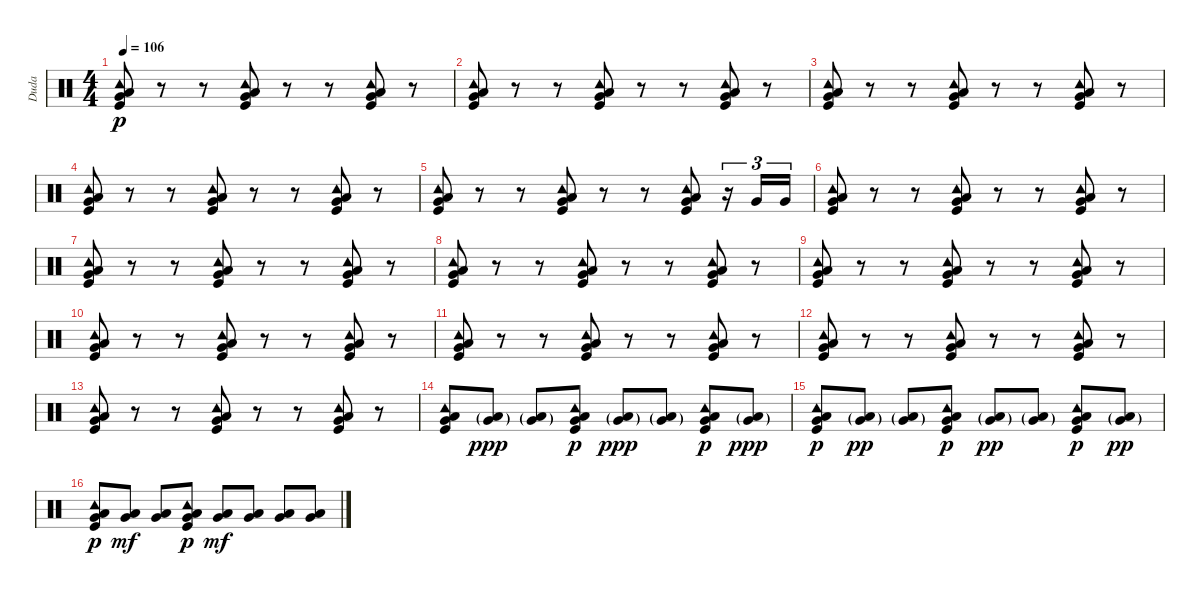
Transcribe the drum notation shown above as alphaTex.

\track ("Duda" "Duda") {instrument percussion}
\staff {score}
\articulation defaults
\ts (4 4)
\tempo 106
\clef neutral
\ks c
("Tambourine (hit)" "Low Floor Tom (hit)" "Very Low Tom (hit)" "Kick (hit)").8{dy p} r.8 r.8 ("Tambourine (hit)" "Low Floor Tom (hit)" "Very Low Tom (hit)" "Kick (hit)").8 r.8 r.8 ("Tambourine (hit)" "Low Floor Tom (hit)" "Very Low Tom (hit)" "Kick (hit)").8 r.8 |
("Tambourine (hit)" "Low Floor Tom (hit)" "Very Low Tom (hit)" "Kick (hit)").8 r.8 r.8 ("Tambourine (hit)" "Low Floor Tom (hit)" "Very Low Tom (hit)" "Kick (hit)").8 r.8 r.8 ("Tambourine (hit)" "Low Floor Tom (hit)" "Very Low Tom (hit)" "Kick (hit)").8 r.8 |
("Tambourine (hit)" "Low Floor Tom (hit)" "Very Low Tom (hit)" "Kick (hit)").8 r.8 r.8 ("Tambourine (hit)" "Low Floor Tom (hit)" "Very Low Tom (hit)" "Kick (hit)").8 r.8 r.8 ("Tambourine (hit)" "Low Floor Tom (hit)" "Very Low Tom (hit)" "Kick (hit)").8 r.8 |
("Tambourine (hit)" "Low Floor Tom (hit)" "Very Low Tom (hit)" "Kick (hit)").8 r.8 r.8 ("Tambourine (hit)" "Low Floor Tom (hit)" "Very Low Tom (hit)" "Kick (hit)").8 r.8 r.8 ("Tambourine (hit)" "Low Floor Tom (hit)" "Very Low Tom (hit)" "Kick (hit)").8 r.8 |
("Tambourine (hit)" "Low Floor Tom (hit)" "Very Low Tom (hit)" "Kick (hit)").8 r.8 r.8 ("Tambourine (hit)" "Low Floor Tom (hit)" "Very Low Tom (hit)" "Kick (hit)").8 r.8 r.8 ("Tambourine (hit)" "Low Floor Tom (hit)" "Very Low Tom (hit)" "Kick (hit)").8 r.16{tu (3 2)} "Very Low Tom (hit)".16{tu (3 2)} "Very Low Tom (hit)".16{tu (3 2)} |
("Tambourine (hit)" "Low Floor Tom (hit)" "Very Low Tom (hit)" "Kick (hit)").8 r.8 r.8 ("Tambourine (hit)" "Low Floor Tom (hit)" "Very Low Tom (hit)" "Kick (hit)").8 r.8 r.8 ("Tambourine (hit)" "Low Floor Tom (hit)" "Very Low Tom (hit)" "Kick (hit)").8 r.8 |
("Tambourine (hit)" "Low Floor Tom (hit)" "Very Low Tom (hit)" "Kick (hit)").8 r.8 r.8 ("Tambourine (hit)" "Low Floor Tom (hit)" "Very Low Tom (hit)" "Kick (hit)").8 r.8 r.8 ("Tambourine (hit)" "Low Floor Tom (hit)" "Very Low Tom (hit)" "Kick (hit)").8 r.8 |
("Tambourine (hit)" "Low Floor Tom (hit)" "Very Low Tom (hit)" "Kick (hit)").8 r.8 r.8 ("Tambourine (hit)" "Low Floor Tom (hit)" "Very Low Tom (hit)" "Kick (hit)").8 r.8 r.8 ("Tambourine (hit)" "Low Floor Tom (hit)" "Very Low Tom (hit)" "Kick (hit)").8 r.8 |
("Tambourine (hit)" "Low Floor Tom (hit)" "Very Low Tom (hit)" "Kick (hit)").8 r.8 r.8 ("Tambourine (hit)" "Low Floor Tom (hit)" "Very Low Tom (hit)" "Kick (hit)").8 r.8 r.8 ("Tambourine (hit)" "Low Floor Tom (hit)" "Very Low Tom (hit)" "Kick (hit)").8 r.8 |
("Tambourine (hit)" "Low Floor Tom (hit)" "Very Low Tom (hit)" "Kick (hit)").8 r.8 r.8 ("Tambourine (hit)" "Low Floor Tom (hit)" "Very Low Tom (hit)" "Kick (hit)").8 r.8 r.8 ("Tambourine (hit)" "Low Floor Tom (hit)" "Very Low Tom (hit)" "Kick (hit)").8 r.8 |
("Tambourine (hit)" "Low Floor Tom (hit)" "Very Low Tom (hit)" "Kick (hit)").8 r.8 r.8 ("Tambourine (hit)" "Low Floor Tom (hit)" "Very Low Tom (hit)" "Kick (hit)").8 r.8 r.8 ("Tambourine (hit)" "Low Floor Tom (hit)" "Very Low Tom (hit)" "Kick (hit)").8 r.8 |
("Tambourine (hit)" "Low Floor Tom (hit)" "Very Low Tom (hit)" "Kick (hit)").8 r.8 r.8 ("Tambourine (hit)" "Low Floor Tom (hit)" "Very Low Tom (hit)" "Kick (hit)").8 r.8 r.8 ("Tambourine (hit)" "Low Floor Tom (hit)" "Very Low Tom (hit)" "Kick (hit)").8 r.8 |
("Tambourine (hit)" "Low Floor Tom (hit)" "Very Low Tom (hit)" "Kick (hit)").8 r.8 r.8 ("Tambourine (hit)" "Low Floor Tom (hit)" "Very Low Tom (hit)" "Kick (hit)").8 r.8 r.8 ("Tambourine (hit)" "Low Floor Tom (hit)" "Very Low Tom (hit)" "Kick (hit)").8 r.8 |
("Tambourine (hit)" "Low Floor Tom (hit)" "Very Low Tom (hit)" "Kick (hit)").8 ("Low Floor Tom (hit)"{g} "Very Low Tom (hit)"{g}).8{dy ppp} ("Low Floor Tom (hit)"{g} "Very Low Tom (hit)"{g}).8 ("Tambourine (hit)" "Low Floor Tom (hit)" "Very Low Tom (hit)" "Kick (hit)").8{dy p} ("Low Floor Tom (hit)"{g} "Very Low Tom (hit)"{g}).8{dy ppp} ("Low Floor Tom (hit)"{g} "Very Low Tom (hit)"{g}).8 ("Tambourine (hit)" "Low Floor Tom (hit)" "Very Low Tom (hit)" "Kick (hit)").8{dy p} ("Low Floor Tom (hit)"{g} "Very Low Tom (hit)"{g}).8{dy ppp} |
("Tambourine (hit)" "Low Floor Tom (hit)" "Very Low Tom (hit)" "Kick (hit)").8{dy p} ("Low Floor Tom (hit)"{g} "Very Low Tom (hit)"{g}).8{dy pp} ("Low Floor Tom (hit)"{g} "Very Low Tom (hit)"{g}).8 ("Tambourine (hit)" "Low Floor Tom (hit)" "Very Low Tom (hit)" "Kick (hit)").8{dy p} ("Low Floor Tom (hit)"{g} "Very Low Tom (hit)"{g}).8{dy pp} ("Low Floor Tom (hit)"{g} "Very Low Tom (hit)"{g}).8 ("Tambourine (hit)" "Low Floor Tom (hit)" "Very Low Tom (hit)" "Kick (hit)").8{dy p} ("Low Floor Tom (hit)"{g} "Very Low Tom (hit)"{g}).8{dy pp} |
("Tambourine (hit)" "Low Floor Tom (hit)" "Very Low Tom (hit)" "Kick (hit)").8{dy p} ("Low Floor Tom (hit)" "Very Low Tom (hit)").8{dy mf} ("Low Floor Tom (hit)" "Very Low Tom (hit)").8 ("Tambourine (hit)" "Low Floor Tom (hit)" "Very Low Tom (hit)" "Kick (hit)").8{dy p} ("Low Floor Tom (hit)" "Very Low Tom (hit)").8{dy mf} ("Low Floor Tom (hit)" "Very Low Tom (hit)").8 ("Low Floor Tom (hit)" "Very Low Tom (hit)").8 ("Low Floor Tom (hit)" "Very Low Tom (hit)").8
